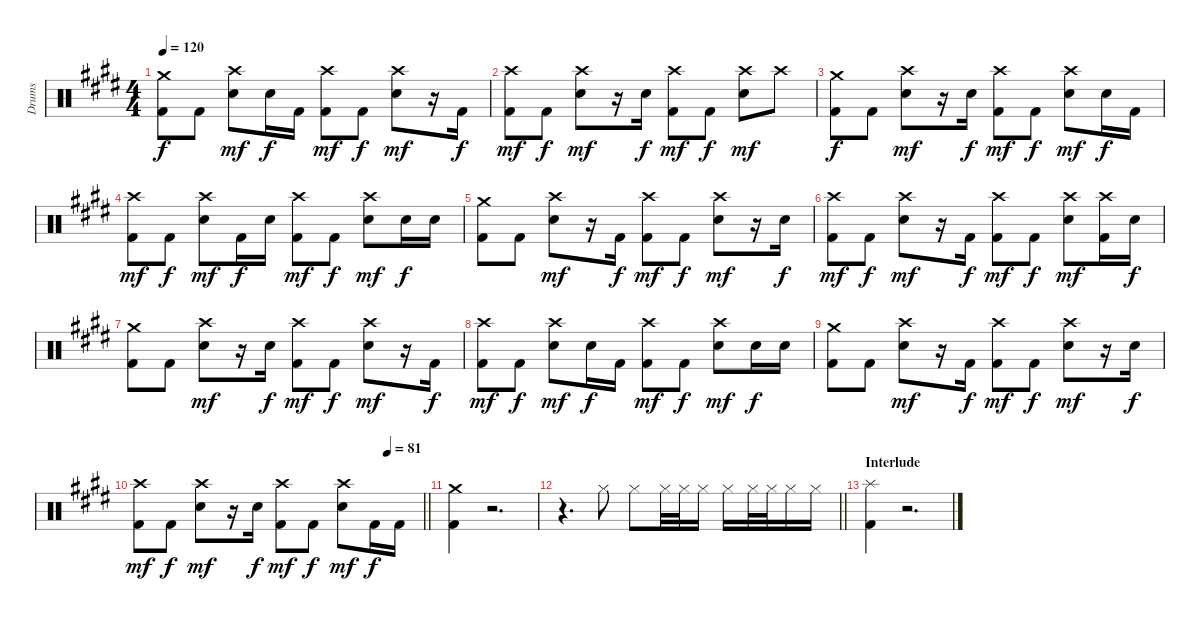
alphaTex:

\track ("Drums" "Drums") {instrument percussion}
\staff {score}
\articulation defaults
\ts (4 4)
\tempo 120
\clef neutral
\ks e
("Crash medium (hit)" "Kick (hit) 2").8{dy f} "Kick (hit) 2".8 ("Crash high (hit)" "Electric Snare (hit)").8{dy mf} "Electric Snare (hit)".16{dy f} "Kick (hit) 2".16 ("Crash high (hit)" "Kick (hit) 2").8{dy mf} "Kick (hit) 2".8{dy f} ("Crash high (hit)" "Electric Snare (hit)").8{dy mf} r.16 "Kick (hit) 2".16{dy f} |
("Crash high (hit)" "Kick (hit) 2").8{dy mf} "Kick (hit) 2".8{dy f} ("Crash high (hit)" "Electric Snare (hit)").8{dy mf} r.16 "Electric Snare (hit)".16{dy f} ("Crash high (hit)" "Kick (hit) 2").8{dy mf} "Kick (hit) 2".8{dy f} ("Crash high (hit)" "Electric Snare (hit)").8{dy mf} "Crash high (hit)".8 |
("Crash medium (hit)" "Kick (hit) 2").8{dy f} "Kick (hit) 2".8 ("Crash high (hit)" "Electric Snare (hit)").8{dy mf} r.16 "Electric Snare (hit)".16{dy f} ("Crash high (hit)" "Kick (hit) 2").8{dy mf} "Kick (hit) 2".8{dy f} ("Crash high (hit)" "Electric Snare (hit)").8{dy mf} "Electric Snare (hit)".16{dy f} "Kick (hit) 2".16 |
("Crash high (hit)" "Kick (hit) 2").8{dy mf} "Kick (hit) 2".8{dy f} ("Crash high (hit)" "Electric Snare (hit)").8{dy mf} "Kick (hit) 2".16{dy f} "Electric Snare (hit)".16 ("Crash high (hit)" "Kick (hit) 2").8{dy mf} "Kick (hit) 2".8{dy f} ("Crash high (hit)" "Electric Snare (hit)").8{dy mf} "Electric Snare (hit)".16{dy f} "Electric Snare (hit)".16 |
("Crash medium (hit)" "Kick (hit) 2").8 "Kick (hit) 2".8 ("Crash high (hit)" "Electric Snare (hit)").8{dy mf} r.16 "Kick (hit) 2".16{dy f} ("Crash high (hit)" "Kick (hit) 2").8{dy mf} "Kick (hit) 2".8{dy f} ("Crash high (hit)" "Electric Snare (hit)").8{dy mf} r.16 "Electric Snare (hit)".16{dy f} |
("Crash high (hit)" "Kick (hit) 2").8{dy mf} "Kick (hit) 2".8{dy f} ("Crash high (hit)" "Electric Snare (hit)").8{dy mf} r.16 "Kick (hit) 2".16{dy f} ("Crash high (hit)" "Kick (hit) 2").8{dy mf} "Kick (hit) 2".8{dy f} ("Crash high (hit)" "Electric Snare (hit)").8{dy mf} ("Crash high (hit)" "Kick (hit) 2").16 "Electric Snare (hit)".16{dy f} |
("Crash medium (hit)" "Kick (hit) 2").8 "Kick (hit) 2".8 ("Crash high (hit)" "Electric Snare (hit)").8{dy mf} r.16 "Electric Snare (hit)".16{dy f} ("Crash high (hit)" "Kick (hit) 2").8{dy mf} "Kick (hit) 2".8{dy f} ("Crash high (hit)" "Electric Snare (hit)").8{dy mf} r.16 "Kick (hit) 2".16{dy f} |
("Crash high (hit)" "Kick (hit) 2").8{dy mf} "Kick (hit) 2".8{dy f} ("Crash high (hit)" "Electric Snare (hit)").8{dy mf} "Electric Snare (hit)".16{dy f} "Kick (hit) 2".16 ("Crash high (hit)" "Kick (hit) 2").8{dy mf} "Kick (hit) 2".8{dy f} ("Crash high (hit)" "Electric Snare (hit)").8{dy mf} "Electric Snare (hit)".16{dy f} "Electric Snare (hit)".16 |
("Crash medium (hit)" "Kick (hit) 2").8 "Kick (hit) 2".8 ("Crash high (hit)" "Electric Snare (hit)").8{dy mf} r.16 "Kick (hit) 2".16{dy f} ("Crash high (hit)" "Kick (hit) 2").8{dy mf} "Kick (hit) 2".8{dy f} ("Crash high (hit)" "Electric Snare (hit)").8{dy mf} r.16 "Electric Snare (hit)".16{dy f} |
\tempo (81 0.875)
\barLineRight lightlight
("Crash high (hit)" "Kick (hit) 2").8{dy mf} "Kick (hit) 2".8{dy f} ("Crash high (hit)" "Electric Snare (hit)").8{dy mf} r.16 "Electric Snare (hit)".16{dy f} ("Crash high (hit)" "Kick (hit) 2").8{dy mf} "Kick (hit) 2".8{dy f} ("Crash high (hit)" "Electric Snare (hit)").8{dy mf} "Kick (hit) 2".16{dy f} "Kick (hit) 2".16 |
("Crash medium (hit)" "Kick (hit) 2").4 r.2{d} |
\barLineRight lightlight
r.4{d} "Hi-Hat (closed)".8 "Hi-Hat (closed)".8 "Hi-Hat (closed)".32 "Hi-Hat (closed)".32 "Hi-Hat (closed)".16 "Hi-Hat (closed)".16 "Hi-Hat (closed)".32 "Hi-Hat (closed)".32 "Hi-Hat (closed)".16 "Hi-Hat (closed)".16 |
\section ("" "Interlude")
("Splash (hit)" "Kick (hit) 2").4 r.2{d}
